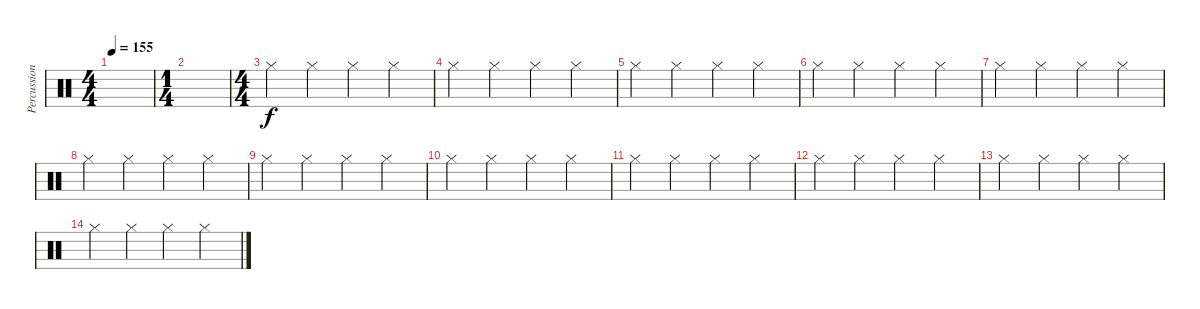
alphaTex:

\track ("Percussion" "Percussion") {instrument percussion}
\staff {score}
\articulation defaults
\ts (4 4)
\tempo 155
\clef neutral
\ks c
|
\ts (1 4)
|
\ts (4 4)
"Hi-Hat (closed)".4 "Hi-Hat (closed)".4 "Hi-Hat (closed)".4 "Hi-Hat (closed)".4 |
"Hi-Hat (closed)".4 "Hi-Hat (closed)".4 "Hi-Hat (closed)".4 "Hi-Hat (closed)".4 |
"Hi-Hat (closed)".4 "Hi-Hat (closed)".4 "Hi-Hat (closed)".4 "Hi-Hat (closed)".4 |
"Hi-Hat (closed)".4 "Hi-Hat (closed)".4 "Hi-Hat (closed)".4 "Hi-Hat (closed)".4 |
"Hi-Hat (closed)".4 "Hi-Hat (closed)".4 "Hi-Hat (closed)".4 "Hi-Hat (closed)".4 |
"Hi-Hat (closed)".4 "Hi-Hat (closed)".4 "Hi-Hat (closed)".4 "Hi-Hat (closed)".4 |
"Hi-Hat (closed)".4 "Hi-Hat (closed)".4 "Hi-Hat (closed)".4 "Hi-Hat (closed)".4 |
"Hi-Hat (closed)".4 "Hi-Hat (closed)".4 "Hi-Hat (closed)".4 "Hi-Hat (closed)".4 |
"Hi-Hat (closed)".4 "Hi-Hat (closed)".4 "Hi-Hat (closed)".4 "Hi-Hat (closed)".4 |
"Hi-Hat (closed)".4 "Hi-Hat (closed)".4 "Hi-Hat (closed)".4 "Hi-Hat (closed)".4 |
"Hi-Hat (closed)".4 "Hi-Hat (closed)".4 "Hi-Hat (closed)".4 "Hi-Hat (closed)".4 |
"Hi-Hat (closed)".4 "Hi-Hat (closed)".4 "Hi-Hat (closed)".4 "Hi-Hat (closed)".4
